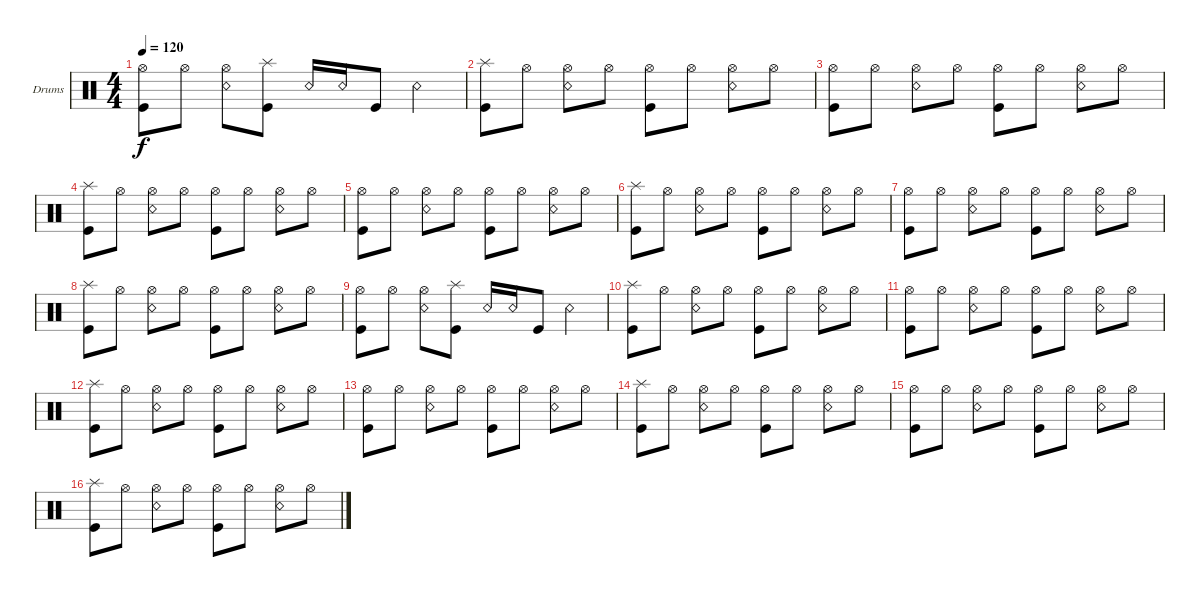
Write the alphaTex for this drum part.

\defaultSystemsLayout 4
\bracketExtendMode groupsimilarinstruments
\firstSystemTrackNameOrientation horizontal
\otherSystemsTrackNameOrientation horizontal
\track ("Drumkit" "Drums") {instrument percussion}
\staff {score}
\articulation defaults
\ts (4 4)
\tempo 120
\clef neutral
\ks c
("Kick (hit)" "Hi-Hat (open)").8{dy f} "Hi-Hat (open)".8 ("Hi-Hat (open)" "Snare (rim shot)").8 ("Kick (hit)" "Splash (hit)").8 "Snare (rim shot)".16 "Snare (rim shot)".16 "Kick (hit)".8 "Snare (rim shot)".4 |
("Kick (hit)" "Splash (hit)").8 "Hi-Hat (open)".8 ("Hi-Hat (open)" "Snare (rim shot)").8 "Hi-Hat (open)".8 ("Hi-Hat (open)" "Kick (hit)").8 "Hi-Hat (open)".8 ("Hi-Hat (open)" "Snare (rim shot)").8 "Hi-Hat (open)".8 |
("Kick (hit)" "Hi-Hat (open)").8 "Hi-Hat (open)".8 ("Hi-Hat (open)" "Snare (rim shot)").8 "Hi-Hat (open)".8 ("Hi-Hat (open)" "Kick (hit)").8 "Hi-Hat (open)".8 ("Hi-Hat (open)" "Snare (rim shot)").8 "Hi-Hat (open)".8 |
("Kick (hit)" "Splash (hit)").8 "Hi-Hat (open)".8 ("Hi-Hat (open)" "Snare (rim shot)").8 "Hi-Hat (open)".8 ("Hi-Hat (open)" "Kick (hit)").8 "Hi-Hat (open)".8 ("Hi-Hat (open)" "Snare (rim shot)").8 "Hi-Hat (open)".8 |
("Kick (hit)" "Hi-Hat (open)").8 "Hi-Hat (open)".8 ("Hi-Hat (open)" "Snare (rim shot)").8 "Hi-Hat (open)".8 ("Hi-Hat (open)" "Kick (hit)").8 "Hi-Hat (open)".8 ("Hi-Hat (open)" "Snare (rim shot)").8 "Hi-Hat (open)".8 |
("Kick (hit)" "Splash (hit)").8 "Hi-Hat (open)".8 ("Hi-Hat (open)" "Snare (rim shot)").8 "Hi-Hat (open)".8 ("Hi-Hat (open)" "Kick (hit)").8 "Hi-Hat (open)".8 ("Hi-Hat (open)" "Snare (rim shot)").8 "Hi-Hat (open)".8 |
("Kick (hit)" "Hi-Hat (open)").8 "Hi-Hat (open)".8 ("Hi-Hat (open)" "Snare (rim shot)").8 "Hi-Hat (open)".8 ("Hi-Hat (open)" "Kick (hit)").8 "Hi-Hat (open)".8 ("Hi-Hat (open)" "Snare (rim shot)").8 "Hi-Hat (open)".8 |
("Kick (hit)" "Splash (hit)").8 "Hi-Hat (open)".8 ("Hi-Hat (open)" "Snare (rim shot)").8 "Hi-Hat (open)".8 ("Hi-Hat (open)" "Kick (hit)").8 "Hi-Hat (open)".8 ("Hi-Hat (open)" "Snare (rim shot)").8 "Hi-Hat (open)".8 |
("Kick (hit)" "Hi-Hat (open)").8 "Hi-Hat (open)".8 ("Hi-Hat (open)" "Snare (rim shot)").8 ("Kick (hit)" "Splash (hit)").8 "Snare (rim shot)".16 "Snare (rim shot)".16 "Kick (hit)".8 "Snare (rim shot)".4 |
("Kick (hit)" "Splash (hit)").8 "Hi-Hat (open)".8 ("Hi-Hat (open)" "Snare (rim shot)").8 "Hi-Hat (open)".8 ("Hi-Hat (open)" "Kick (hit)").8 "Hi-Hat (open)".8 ("Hi-Hat (open)" "Snare (rim shot)").8 "Hi-Hat (open)".8 |
("Kick (hit)" "Hi-Hat (open)").8 "Hi-Hat (open)".8 ("Hi-Hat (open)" "Snare (rim shot)").8 "Hi-Hat (open)".8 ("Hi-Hat (open)" "Kick (hit)").8 "Hi-Hat (open)".8 ("Hi-Hat (open)" "Snare (rim shot)").8 "Hi-Hat (open)".8 |
("Kick (hit)" "Splash (hit)").8 "Hi-Hat (open)".8 ("Hi-Hat (open)" "Snare (rim shot)").8 "Hi-Hat (open)".8 ("Hi-Hat (open)" "Kick (hit)").8 "Hi-Hat (open)".8 ("Hi-Hat (open)" "Snare (rim shot)").8 "Hi-Hat (open)".8 |
("Kick (hit)" "Hi-Hat (open)").8 "Hi-Hat (open)".8 ("Hi-Hat (open)" "Snare (rim shot)").8 "Hi-Hat (open)".8 ("Hi-Hat (open)" "Kick (hit)").8 "Hi-Hat (open)".8 ("Hi-Hat (open)" "Snare (rim shot)").8 "Hi-Hat (open)".8 |
("Kick (hit)" "Splash (hit)").8 "Hi-Hat (open)".8 ("Hi-Hat (open)" "Snare (rim shot)").8 "Hi-Hat (open)".8 ("Hi-Hat (open)" "Kick (hit)").8 "Hi-Hat (open)".8 ("Hi-Hat (open)" "Snare (rim shot)").8 "Hi-Hat (open)".8 |
("Kick (hit)" "Hi-Hat (open)").8 "Hi-Hat (open)".8 ("Hi-Hat (open)" "Snare (rim shot)").8 "Hi-Hat (open)".8 ("Hi-Hat (open)" "Kick (hit)").8 "Hi-Hat (open)".8 ("Hi-Hat (open)" "Snare (rim shot)").8 "Hi-Hat (open)".8 |
("Kick (hit)" "Splash (hit)").8 "Hi-Hat (open)".8 ("Hi-Hat (open)" "Snare (rim shot)").8 "Hi-Hat (open)".8 ("Hi-Hat (open)" "Kick (hit)").8 "Hi-Hat (open)".8 ("Hi-Hat (open)" "Snare (rim shot)").8 "Hi-Hat (open)".8
